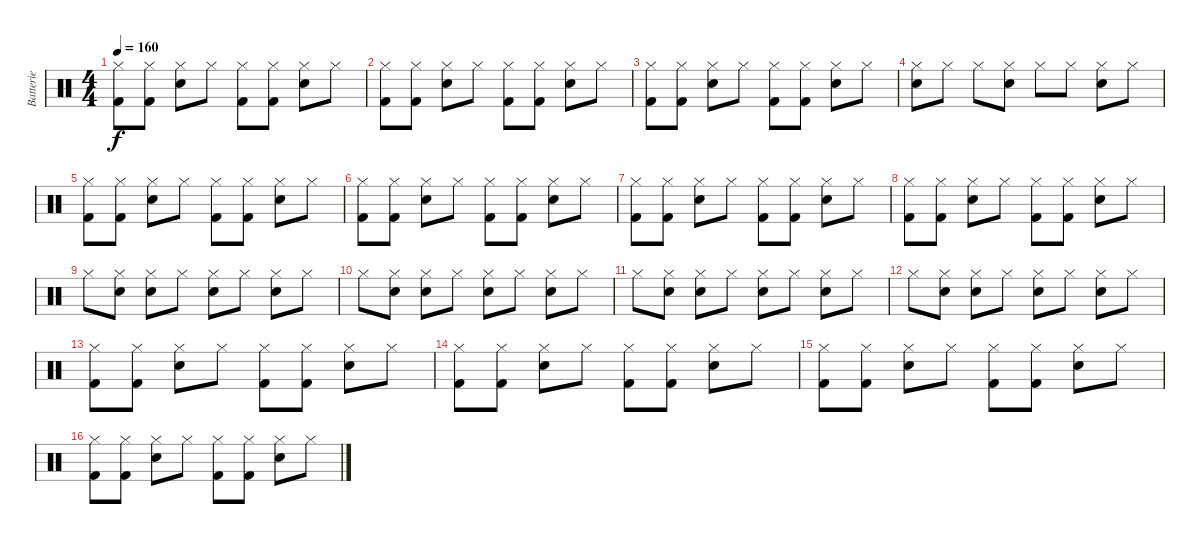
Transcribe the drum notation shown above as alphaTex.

\track ("Batterie" "Batterie") {instrument percussion}
\staff {score}
\articulation defaults
\ts (4 4)
\tempo 160
\clef neutral
\ks c
("Hi-Hat (closed)" "Kick (hit) 2").8{dy f} ("Hi-Hat (closed)" "Kick (hit) 2").8 ("Hi-Hat (closed)" "Electric Snare (hit)").8 "Hi-Hat (closed)".8 ("Hi-Hat (closed)" "Kick (hit) 2").8 ("Hi-Hat (closed)" "Kick (hit) 2").8 ("Hi-Hat (closed)" "Electric Snare (hit)").8 "Hi-Hat (closed)".8 |
("Hi-Hat (closed)" "Kick (hit) 2").8 ("Hi-Hat (closed)" "Kick (hit) 2").8 ("Hi-Hat (closed)" "Electric Snare (hit)").8 "Hi-Hat (closed)".8 ("Hi-Hat (closed)" "Kick (hit) 2").8 ("Hi-Hat (closed)" "Kick (hit) 2").8 ("Hi-Hat (closed)" "Electric Snare (hit)").8 "Hi-Hat (closed)".8 |
("Hi-Hat (closed)" "Kick (hit) 2").8 ("Hi-Hat (closed)" "Kick (hit) 2").8 ("Hi-Hat (closed)" "Electric Snare (hit)").8 "Hi-Hat (closed)".8 ("Hi-Hat (closed)" "Kick (hit) 2").8 ("Hi-Hat (closed)" "Kick (hit) 2").8 ("Hi-Hat (closed)" "Electric Snare (hit)").8 "Hi-Hat (closed)".8 |
("Hi-Hat (closed)" "Electric Snare (hit)").8 "Hi-Hat (closed)".8 "Hi-Hat (closed)".8 ("Hi-Hat (closed)" "Electric Snare (hit)").8 "Hi-Hat (closed)".8 "Hi-Hat (closed)".8 ("Hi-Hat (closed)" "Electric Snare (hit)").8 "Hi-Hat (closed)".8 |
("Hi-Hat (closed)" "Kick (hit) 2").8 ("Hi-Hat (closed)" "Kick (hit) 2").8 ("Hi-Hat (closed)" "Electric Snare (hit)").8 "Hi-Hat (closed)".8 ("Hi-Hat (closed)" "Kick (hit) 2").8 ("Hi-Hat (closed)" "Kick (hit) 2").8 ("Hi-Hat (closed)" "Electric Snare (hit)").8 "Hi-Hat (closed)".8 |
("Hi-Hat (closed)" "Kick (hit) 2").8 ("Hi-Hat (closed)" "Kick (hit) 2").8 ("Hi-Hat (closed)" "Electric Snare (hit)").8 "Hi-Hat (closed)".8 ("Hi-Hat (closed)" "Kick (hit) 2").8 ("Hi-Hat (closed)" "Kick (hit) 2").8 ("Hi-Hat (closed)" "Electric Snare (hit)").8 "Hi-Hat (closed)".8 |
("Hi-Hat (closed)" "Kick (hit) 2").8 ("Hi-Hat (closed)" "Kick (hit) 2").8 ("Hi-Hat (closed)" "Electric Snare (hit)").8 "Hi-Hat (closed)".8 ("Hi-Hat (closed)" "Kick (hit) 2").8 ("Hi-Hat (closed)" "Kick (hit) 2").8 ("Hi-Hat (closed)" "Electric Snare (hit)").8 "Hi-Hat (closed)".8 |
("Hi-Hat (closed)" "Kick (hit) 2").8 ("Hi-Hat (closed)" "Kick (hit) 2").8 ("Hi-Hat (closed)" "Electric Snare (hit)").8 "Hi-Hat (closed)".8 ("Hi-Hat (closed)" "Kick (hit) 2").8 ("Hi-Hat (closed)" "Kick (hit) 2").8 ("Hi-Hat (closed)" "Electric Snare (hit)").8 "Hi-Hat (closed)".8 |
"Hi-Hat (closed)".8 ("Hi-Hat (closed)" "Electric Snare (hit)").8 ("Hi-Hat (closed)" "Electric Snare (hit)").8 "Hi-Hat (closed)".8 ("Hi-Hat (closed)" "Electric Snare (hit)").8 "Hi-Hat (closed)".8 ("Hi-Hat (closed)" "Electric Snare (hit)").8 "Hi-Hat (closed)".8 |
"Hi-Hat (closed)".8 ("Hi-Hat (closed)" "Electric Snare (hit)").8 ("Hi-Hat (closed)" "Electric Snare (hit)").8 "Hi-Hat (closed)".8 ("Hi-Hat (closed)" "Electric Snare (hit)").8 "Hi-Hat (closed)".8 ("Hi-Hat (closed)" "Electric Snare (hit)").8 "Hi-Hat (closed)".8 |
"Hi-Hat (closed)".8 ("Hi-Hat (closed)" "Electric Snare (hit)").8 ("Hi-Hat (closed)" "Electric Snare (hit)").8 "Hi-Hat (closed)".8 ("Hi-Hat (closed)" "Electric Snare (hit)").8 "Hi-Hat (closed)".8 ("Hi-Hat (closed)" "Electric Snare (hit)").8 "Hi-Hat (closed)".8 |
"Hi-Hat (closed)".8 ("Hi-Hat (closed)" "Electric Snare (hit)").8 ("Hi-Hat (closed)" "Electric Snare (hit)").8 "Hi-Hat (closed)".8 ("Hi-Hat (closed)" "Electric Snare (hit)").8 "Hi-Hat (closed)".8 ("Hi-Hat (closed)" "Electric Snare (hit)").8 "Hi-Hat (closed)".8 |
("Hi-Hat (closed)" "Kick (hit) 2").8 ("Hi-Hat (closed)" "Kick (hit) 2").8 ("Hi-Hat (closed)" "Electric Snare (hit)").8 "Hi-Hat (closed)".8 ("Hi-Hat (closed)" "Kick (hit) 2").8 ("Hi-Hat (closed)" "Kick (hit) 2").8 ("Hi-Hat (closed)" "Electric Snare (hit)").8 "Hi-Hat (closed)".8 |
("Hi-Hat (closed)" "Kick (hit) 2").8 ("Hi-Hat (closed)" "Kick (hit) 2").8 ("Hi-Hat (closed)" "Electric Snare (hit)").8 "Hi-Hat (closed)".8 ("Hi-Hat (closed)" "Kick (hit) 2").8 ("Hi-Hat (closed)" "Kick (hit) 2").8 ("Hi-Hat (closed)" "Electric Snare (hit)").8 "Hi-Hat (closed)".8 |
("Hi-Hat (closed)" "Kick (hit) 2").8 ("Hi-Hat (closed)" "Kick (hit) 2").8 ("Hi-Hat (closed)" "Electric Snare (hit)").8 "Hi-Hat (closed)".8 ("Hi-Hat (closed)" "Kick (hit) 2").8 ("Hi-Hat (closed)" "Kick (hit) 2").8 ("Hi-Hat (closed)" "Electric Snare (hit)").8 "Hi-Hat (closed)".8 |
("Hi-Hat (closed)" "Kick (hit) 2").8 ("Hi-Hat (closed)" "Kick (hit) 2").8 ("Hi-Hat (closed)" "Electric Snare (hit)").8 "Hi-Hat (closed)".8 ("Hi-Hat (closed)" "Kick (hit) 2").8 ("Hi-Hat (closed)" "Kick (hit) 2").8 ("Hi-Hat (closed)" "Electric Snare (hit)").8 "Hi-Hat (closed)".8
